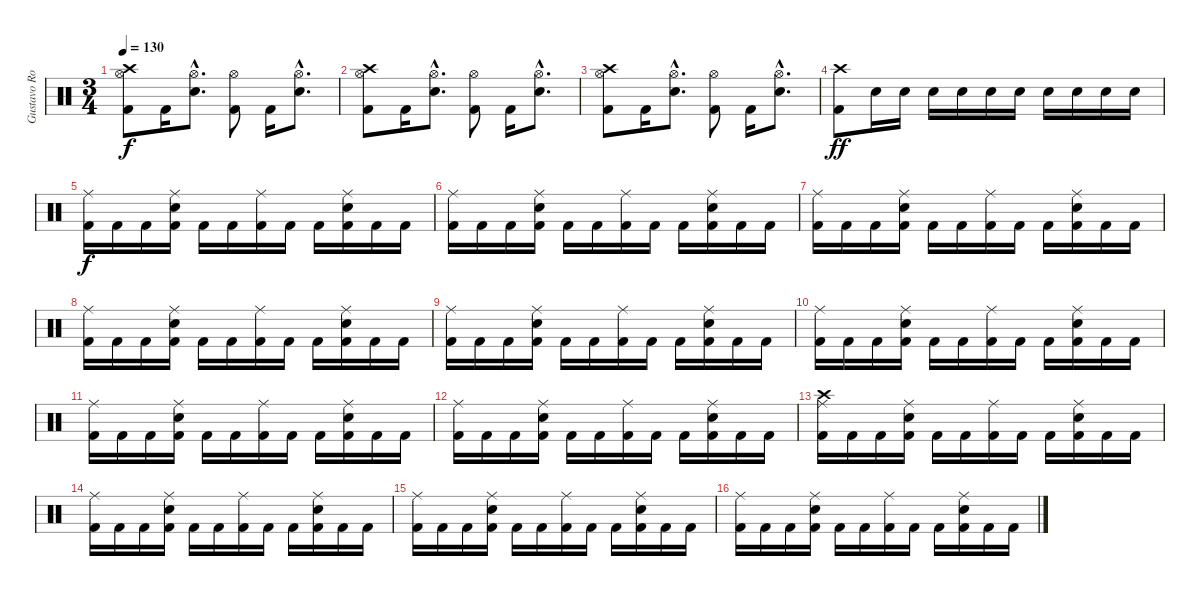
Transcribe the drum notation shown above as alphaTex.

\track ("Gustavo Rowek" "Gustavo Ro") {instrument percussion}
\staff {score}
\articulation defaults
\ts (3 4)
\tempo 130
\clef neutral
\ks c
("Hi-Hat (open)" "Crash high (hit)" "Kick (hit) 2").8{dy f} "Kick (hit) 2".16 ("Hi-Hat (open)"{hac} "Snare (hit) 2"{hac}).8{d} ("Hi-Hat (open)" "Kick (hit) 2").8 "Kick (hit) 2".16 ("Hi-Hat (open)"{hac} "Snare (hit) 2"{hac}).8{d} |
("Hi-Hat (open)" "Crash high (hit)" "Kick (hit) 2").8 "Kick (hit) 2".16 ("Hi-Hat (open)"{hac} "Snare (hit) 2"{hac}).8{d} ("Hi-Hat (open)" "Kick (hit) 2").8 "Kick (hit) 2".16 ("Hi-Hat (open)"{hac} "Snare (hit) 2"{hac}).8{d} |
("Hi-Hat (open)" "Crash high (hit)" "Kick (hit) 2").8 "Kick (hit) 2".16 ("Hi-Hat (open)"{hac} "Snare (hit) 2"{hac}).8{d} ("Hi-Hat (open)" "Kick (hit) 2").8 "Kick (hit) 2".16 ("Hi-Hat (open)"{hac} "Snare (hit) 2"{hac}).8{d} |
("Kick (hit) 2" "Crash high (hit)").8{dy ff} "Electric Snare (hit)".16 "Electric Snare (hit)".16 "Electric Snare (hit)".16 "Electric Snare (hit)".16 "Electric Snare (hit)".16 "Electric Snare (hit)".16 "Electric Snare (hit)".16 "Electric Snare (hit)".16 "Electric Snare (hit)".16 "Electric Snare (hit)".16 |
("Ride (middle)" "Kick (hit) 2").16{dy f} "Kick (hit) 2".16 "Kick (hit) 2".16 ("Ride (middle)" "Snare (hit) 2" "Kick (hit) 2").16 "Kick (hit) 2".16 "Kick (hit) 2".16 ("Ride (middle)" "Kick (hit) 2").16 "Kick (hit) 2".16 "Kick (hit) 2".16 ("Ride (middle)" "Snare (hit) 2" "Kick (hit) 2").16 "Kick (hit) 2".16 "Kick (hit) 2".16 |
("Ride (middle)" "Kick (hit) 2").16 "Kick (hit) 2".16 "Kick (hit) 2".16 ("Ride (middle)" "Snare (hit) 2" "Kick (hit) 2").16 "Kick (hit) 2".16 "Kick (hit) 2".16 ("Ride (middle)" "Kick (hit) 2").16 "Kick (hit) 2".16 "Kick (hit) 2".16 ("Ride (middle)" "Snare (hit) 2" "Kick (hit) 2").16 "Kick (hit) 2".16 "Kick (hit) 2".16 |
("Ride (middle)" "Kick (hit) 2").16 "Kick (hit) 2".16 "Kick (hit) 2".16 ("Ride (middle)" "Snare (hit) 2" "Kick (hit) 2").16 "Kick (hit) 2".16 "Kick (hit) 2".16 ("Ride (middle)" "Kick (hit) 2").16 "Kick (hit) 2".16 "Kick (hit) 2".16 ("Ride (middle)" "Snare (hit) 2" "Kick (hit) 2").16 "Kick (hit) 2".16 "Kick (hit) 2".16 |
("Ride (middle)" "Kick (hit) 2").16 "Kick (hit) 2".16 "Kick (hit) 2".16 ("Ride (middle)" "Snare (hit) 2" "Kick (hit) 2").16 "Kick (hit) 2".16 "Kick (hit) 2".16 ("Ride (middle)" "Kick (hit) 2").16 "Kick (hit) 2".16 "Kick (hit) 2".16 ("Ride (middle)" "Snare (hit) 2" "Kick (hit) 2").16 "Kick (hit) 2".16 "Kick (hit) 2".16 |
("Ride (middle)" "Kick (hit) 2").16 "Kick (hit) 2".16 "Kick (hit) 2".16 ("Ride (middle)" "Snare (hit) 2" "Kick (hit) 2").16 "Kick (hit) 2".16 "Kick (hit) 2".16 ("Ride (middle)" "Kick (hit) 2").16 "Kick (hit) 2".16 "Kick (hit) 2".16 ("Ride (middle)" "Snare (hit) 2" "Kick (hit) 2").16 "Kick (hit) 2".16 "Kick (hit) 2".16 |
("Ride (middle)" "Kick (hit) 2").16 "Kick (hit) 2".16 "Kick (hit) 2".16 ("Ride (middle)" "Snare (hit) 2" "Kick (hit) 2").16 "Kick (hit) 2".16 "Kick (hit) 2".16 ("Ride (middle)" "Kick (hit) 2").16 "Kick (hit) 2".16 "Kick (hit) 2".16 ("Ride (middle)" "Snare (hit) 2" "Kick (hit) 2").16 "Kick (hit) 2".16 "Kick (hit) 2".16 |
("Ride (middle)" "Kick (hit) 2").16 "Kick (hit) 2".16 "Kick (hit) 2".16 ("Ride (middle)" "Snare (hit) 2" "Kick (hit) 2").16 "Kick (hit) 2".16 "Kick (hit) 2".16 ("Ride (middle)" "Kick (hit) 2").16 "Kick (hit) 2".16 "Kick (hit) 2".16 ("Ride (middle)" "Snare (hit) 2" "Kick (hit) 2").16 "Kick (hit) 2".16 "Kick (hit) 2".16 |
("Ride (middle)" "Kick (hit) 2").16 "Kick (hit) 2".16 "Kick (hit) 2".16 ("Ride (middle)" "Snare (hit) 2" "Kick (hit) 2").16 "Kick (hit) 2".16 "Kick (hit) 2".16 ("Ride (middle)" "Kick (hit) 2").16 "Kick (hit) 2".16 "Kick (hit) 2".16 ("Ride (middle)" "Snare (hit) 2" "Kick (hit) 2").16 "Kick (hit) 2".16 "Kick (hit) 2".16 |
("Ride (middle)" "Crash high (hit)" "Kick (hit) 2").16 "Kick (hit) 2".16 "Kick (hit) 2".16 ("Ride (middle)" "Snare (hit) 2" "Kick (hit) 2").16 "Kick (hit) 2".16 "Kick (hit) 2".16 ("Ride (middle)" "Kick (hit) 2").16 "Kick (hit) 2".16 "Kick (hit) 2".16 ("Ride (middle)" "Snare (hit) 2" "Kick (hit) 2").16 "Kick (hit) 2".16 "Kick (hit) 2".16 |
("Ride (middle)" "Kick (hit) 2").16 "Kick (hit) 2".16 "Kick (hit) 2".16 ("Ride (middle)" "Snare (hit) 2" "Kick (hit) 2").16 "Kick (hit) 2".16 "Kick (hit) 2".16 ("Ride (middle)" "Kick (hit) 2").16 "Kick (hit) 2".16 "Kick (hit) 2".16 ("Ride (middle)" "Snare (hit) 2" "Kick (hit) 2").16 "Kick (hit) 2".16 "Kick (hit) 2".16 |
("Ride (middle)" "Kick (hit) 2").16 "Kick (hit) 2".16 "Kick (hit) 2".16 ("Ride (middle)" "Snare (hit) 2" "Kick (hit) 2").16 "Kick (hit) 2".16 "Kick (hit) 2".16 ("Ride (middle)" "Kick (hit) 2").16 "Kick (hit) 2".16 "Kick (hit) 2".16 ("Ride (middle)" "Snare (hit) 2" "Kick (hit) 2").16 "Kick (hit) 2".16 "Kick (hit) 2".16 |
("Ride (middle)" "Kick (hit) 2").16 "Kick (hit) 2".16 "Kick (hit) 2".16 ("Ride (middle)" "Snare (hit) 2" "Kick (hit) 2").16 "Kick (hit) 2".16 "Kick (hit) 2".16 ("Ride (middle)" "Kick (hit) 2").16 "Kick (hit) 2".16 "Kick (hit) 2".16 ("Ride (middle)" "Snare (hit) 2" "Kick (hit) 2").16 "Kick (hit) 2".16 "Kick (hit) 2".16
